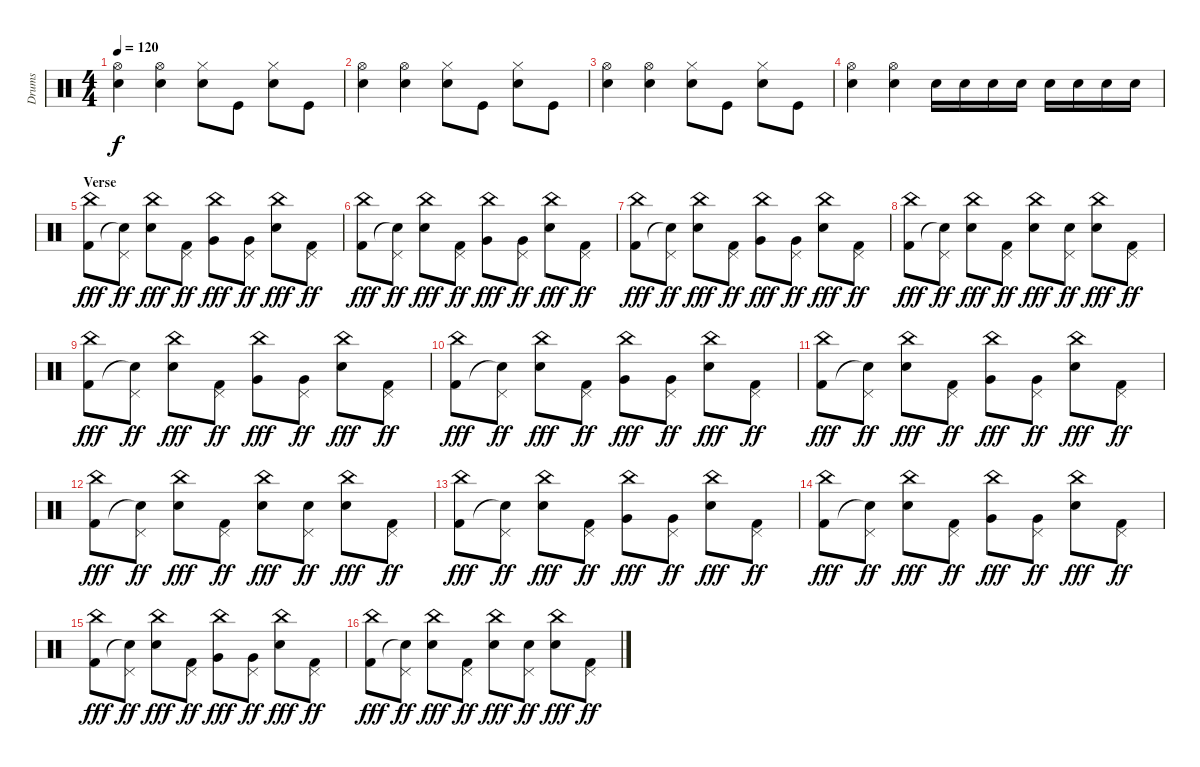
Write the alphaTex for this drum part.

\track ("Drums" "Drums") {instrument percussion}
\staff {score}
\articulation defaults
\ts (4 4)
\tempo 120
\clef neutral
\ks c
("Hi-Hat (open)" "Electric Snare (hit)").4{dy f} ("Hi-Hat (open)" "Electric Snare (hit)").4 ("Hi-Hat (closed)" "Electric Snare (hit)").8 "Kick (hit)".8 ("Hi-Hat (closed)" "Electric Snare (hit)").8 "Kick (hit)".8 |
("Hi-Hat (open)" "Electric Snare (hit)").4 ("Hi-Hat (open)" "Electric Snare (hit)").4 ("Hi-Hat (closed)" "Electric Snare (hit)").8 "Kick (hit)".8 ("Hi-Hat (closed)" "Electric Snare (hit)").8 "Kick (hit)".8 |
("Hi-Hat (open)" "Electric Snare (hit)").4 ("Hi-Hat (open)" "Electric Snare (hit)").4 ("Hi-Hat (closed)" "Electric Snare (hit)").8 "Kick (hit)".8 ("Hi-Hat (closed)" "Electric Snare (hit)").8 "Kick (hit)".8 |
("Hi-Hat (open)" "Electric Snare (hit)").4 ("Hi-Hat (open)" "Electric Snare (hit)").4 "Electric Snare (hit)".16 "Snare (hit) 2".16 "Electric Snare (hit)".16 "Snare (hit) 2".16 "Electric Snare (hit)".16 "Snare (hit) 2".16 "Electric Snare (hit)".16 "Snare (hit) 2".16 |
\section ("" "Verse")
("China (hit)" "Kick (hit) 2").8{dy fff} ("Pedal Hi-Hat (hit)" "Snare (hit) 2"{t}).8{dy ff} ("China (hit)" "Snare (hit) 2").8{dy fff} ("Pedal Hi-Hat (hit)" "Kick (hit) 2").8{dy ff} ("China (hit)" "Very Low Tom (hit)").8{dy fff} ("Pedal Hi-Hat (hit)" "Very Low Tom (hit)").8{dy ff} ("China (hit)" "Snare (hit) 2").8{dy fff} ("Pedal Hi-Hat (hit)" "Kick (hit) 2").8{dy ff} |
("China (hit)" "Kick (hit) 2").8{dy fff} ("Pedal Hi-Hat (hit)" "Snare (hit) 2"{t}).8{dy ff} ("China (hit)" "Snare (hit) 2").8{dy fff} ("Pedal Hi-Hat (hit)" "Kick (hit) 2").8{dy ff} ("China (hit)" "Very Low Tom (hit)").8{dy fff} ("Pedal Hi-Hat (hit)" "Very Low Tom (hit)").8{dy ff} ("China (hit)" "Snare (hit) 2").8{dy fff} ("Pedal Hi-Hat (hit)" "Kick (hit) 2").8{dy ff} |
("China (hit)" "Kick (hit) 2").8{dy fff} ("Pedal Hi-Hat (hit)" "Snare (hit) 2"{t}).8{dy ff} ("China (hit)" "Snare (hit) 2").8{dy fff} ("Pedal Hi-Hat (hit)" "Kick (hit) 2").8{dy ff} ("China (hit)" "Very Low Tom (hit)").8{dy fff} ("Pedal Hi-Hat (hit)" "Very Low Tom (hit)").8{dy ff} ("China (hit)" "Snare (hit) 2").8{dy fff} ("Pedal Hi-Hat (hit)" "Kick (hit) 2").8{dy ff} |
("China (hit)" "Kick (hit) 2").8{dy fff} ("Pedal Hi-Hat (hit)" "Snare (hit) 2"{t}).8{dy ff} ("China (hit)" "Snare (hit) 2").8{dy fff} ("Pedal Hi-Hat (hit)" "Kick (hit) 2").8{dy ff} ("China (hit)" "Snare (hit) 2").8{dy fff} ("Pedal Hi-Hat (hit)" "Snare (hit) 2").8{dy ff} ("China (hit)" "Snare (hit) 2").8{dy fff} ("Pedal Hi-Hat (hit)" "Kick (hit) 2").8{dy ff} |
("China (hit)" "Kick (hit) 2").8{dy fff} ("Pedal Hi-Hat (hit)" "Snare (hit) 2"{t}).8{dy ff} ("China (hit)" "Snare (hit) 2").8{dy fff} ("Pedal Hi-Hat (hit)" "Kick (hit) 2").8{dy ff} ("China (hit)" "Very Low Tom (hit)").8{dy fff} ("Pedal Hi-Hat (hit)" "Very Low Tom (hit)").8{dy ff} ("China (hit)" "Snare (hit) 2").8{dy fff} ("Pedal Hi-Hat (hit)" "Kick (hit) 2").8{dy ff} |
("China (hit)" "Kick (hit) 2").8{dy fff} ("Pedal Hi-Hat (hit)" "Snare (hit) 2"{t}).8{dy ff} ("China (hit)" "Snare (hit) 2").8{dy fff} ("Pedal Hi-Hat (hit)" "Kick (hit) 2").8{dy ff} ("China (hit)" "Very Low Tom (hit)").8{dy fff} ("Pedal Hi-Hat (hit)" "Very Low Tom (hit)").8{dy ff} ("China (hit)" "Snare (hit) 2").8{dy fff} ("Pedal Hi-Hat (hit)" "Kick (hit) 2").8{dy ff} |
("China (hit)" "Kick (hit) 2").8{dy fff} ("Pedal Hi-Hat (hit)" "Snare (hit) 2"{t}).8{dy ff} ("China (hit)" "Snare (hit) 2").8{dy fff} ("Pedal Hi-Hat (hit)" "Kick (hit) 2").8{dy ff} ("China (hit)" "Very Low Tom (hit)").8{dy fff} ("Pedal Hi-Hat (hit)" "Very Low Tom (hit)").8{dy ff} ("China (hit)" "Snare (hit) 2").8{dy fff} ("Pedal Hi-Hat (hit)" "Kick (hit) 2").8{dy ff} |
("China (hit)" "Kick (hit) 2").8{dy fff} ("Pedal Hi-Hat (hit)" "Snare (hit) 2"{t}).8{dy ff} ("China (hit)" "Snare (hit) 2").8{dy fff} ("Pedal Hi-Hat (hit)" "Kick (hit) 2").8{dy ff} ("China (hit)" "Snare (hit) 2").8{dy fff} ("Pedal Hi-Hat (hit)" "Snare (hit) 2").8{dy ff} ("China (hit)" "Snare (hit) 2").8{dy fff} ("Pedal Hi-Hat (hit)" "Kick (hit) 2").8{dy ff} |
("China (hit)" "Kick (hit) 2").8{dy fff} ("Pedal Hi-Hat (hit)" "Snare (hit) 2"{t}).8{dy ff} ("China (hit)" "Snare (hit) 2").8{dy fff} ("Pedal Hi-Hat (hit)" "Kick (hit) 2").8{dy ff} ("China (hit)" "Very Low Tom (hit)").8{dy fff} ("Pedal Hi-Hat (hit)" "Very Low Tom (hit)").8{dy ff} ("China (hit)" "Snare (hit) 2").8{dy fff} ("Pedal Hi-Hat (hit)" "Kick (hit) 2").8{dy ff} |
("China (hit)" "Kick (hit) 2").8{dy fff} ("Pedal Hi-Hat (hit)" "Snare (hit) 2"{t}).8{dy ff} ("China (hit)" "Snare (hit) 2").8{dy fff} ("Pedal Hi-Hat (hit)" "Kick (hit) 2").8{dy ff} ("China (hit)" "Very Low Tom (hit)").8{dy fff} ("Pedal Hi-Hat (hit)" "Very Low Tom (hit)").8{dy ff} ("China (hit)" "Snare (hit) 2").8{dy fff} ("Pedal Hi-Hat (hit)" "Kick (hit) 2").8{dy ff} |
("China (hit)" "Kick (hit) 2").8{dy fff} ("Pedal Hi-Hat (hit)" "Snare (hit) 2"{t}).8{dy ff} ("China (hit)" "Snare (hit) 2").8{dy fff} ("Pedal Hi-Hat (hit)" "Kick (hit) 2").8{dy ff} ("China (hit)" "Very Low Tom (hit)").8{dy fff} ("Pedal Hi-Hat (hit)" "Very Low Tom (hit)").8{dy ff} ("China (hit)" "Snare (hit) 2").8{dy fff} ("Pedal Hi-Hat (hit)" "Kick (hit) 2").8{dy ff} |
("China (hit)" "Kick (hit) 2").8{dy fff} ("Pedal Hi-Hat (hit)" "Snare (hit) 2"{t}).8{dy ff} ("China (hit)" "Snare (hit) 2").8{dy fff} ("Pedal Hi-Hat (hit)" "Kick (hit) 2").8{dy ff} ("China (hit)" "Snare (hit) 2").8{dy fff} ("Pedal Hi-Hat (hit)" "Snare (hit) 2").8{dy ff} ("China (hit)" "Snare (hit) 2").8{dy fff} ("Pedal Hi-Hat (hit)" "Kick (hit) 2").8{dy ff}
